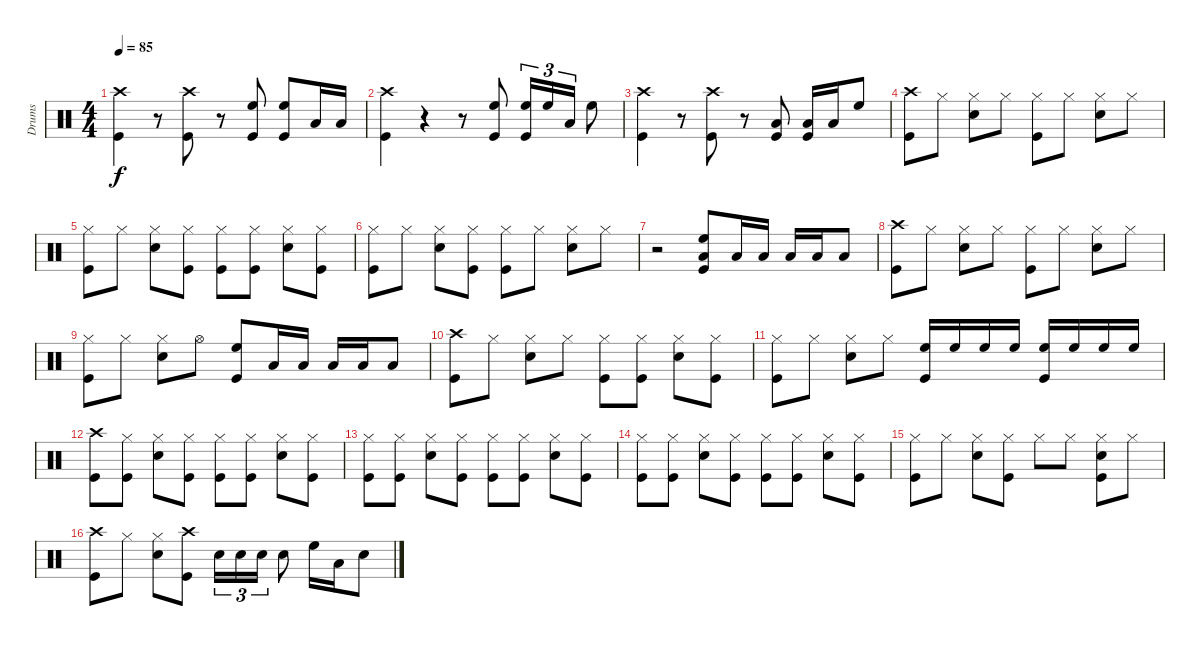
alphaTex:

\track ("Drums" "Drums") {instrument percussion}
\staff {score}
\articulation defaults
\ts (4 4)
\tempo 85
\clef neutral
\ks c
("Crash high (hit)" "Kick (hit)").4{dy f} r.8 ("Crash high (hit)" "Kick (hit)").8 r.8 ("High Floor Tom (hit)" "Kick (hit)").8 ("High Floor Tom (hit)" "Kick (hit)").8 "Low Floor Tom (hit)".16 "Low Floor Tom (hit)".16 |
("Crash high (hit)" "Kick (hit)").4 r.4 r.8 ("High Floor Tom (hit)" "Kick (hit)").8 ("High Floor Tom (hit)" "Kick (hit)").16{tu (3 2)} "High Floor Tom (hit)".16{tu (3 2)} "Low Floor Tom (hit)".16{tu (3 2)} "High Floor Tom (hit)".8 |
("Crash high (hit)" "Kick (hit)").4 r.8 ("Crash high (hit)" "Kick (hit)").8 r.8 ("Low Floor Tom (hit)" "Kick (hit)").8 ("Low Floor Tom (hit)" "Kick (hit)").16 "Low Floor Tom (hit)".16 "High Floor Tom (hit)".8 |
("Crash high (hit)" "Kick (hit)").8 "Hi-Hat (closed)".8 ("Hi-Hat (closed)" "Snare (hit) 2").8 "Hi-Hat (closed)".8 ("Hi-Hat (closed)" "Kick (hit)").8 "Hi-Hat (closed)".8 ("Hi-Hat (closed)" "Snare (hit) 2").8 "Hi-Hat (closed)".8 |
("Hi-Hat (closed)" "Kick (hit)").8 "Hi-Hat (closed)".8 ("Hi-Hat (closed)" "Snare (hit) 2").8 ("Hi-Hat (closed)" "Kick (hit)").8 ("Hi-Hat (closed)" "Kick (hit)").8 ("Hi-Hat (closed)" "Kick (hit)").8 ("Hi-Hat (closed)" "Snare (hit) 2").8 ("Hi-Hat (closed)" "Kick (hit)").8 |
("Hi-Hat (closed)" "Kick (hit)").8 "Hi-Hat (closed)".8 ("Hi-Hat (closed)" "Snare (hit) 2").8 ("Hi-Hat (closed)" "Kick (hit)").8 ("Hi-Hat (closed)" "Kick (hit)").8 "Hi-Hat (closed)".8 ("Hi-Hat (closed)" "Snare (hit) 2").8 "Hi-Hat (closed)".8 |
r.2 ("High Floor Tom (hit)" "Low Floor Tom (hit)" "Kick (hit)").8 "Low Floor Tom (hit)".16 "Low Floor Tom (hit)".16 "Low Floor Tom (hit)".16 "Low Floor Tom (hit)".16 "Low Floor Tom (hit)".8 |
("Crash high (hit)" "Kick (hit)").8 "Hi-Hat (closed)".8 ("Hi-Hat (closed)" "Snare (hit) 2").8 "Hi-Hat (closed)".8 ("Hi-Hat (closed)" "Kick (hit)").8 "Hi-Hat (closed)".8 ("Hi-Hat (closed)" "Snare (hit) 2").8 "Hi-Hat (closed)".8 |
("Hi-Hat (closed)" "Kick (hit)").8 "Hi-Hat (closed)".8 ("Hi-Hat (closed)" "Snare (hit) 2").8 "Hi-Hat (open)".8 ("High Floor Tom (hit)" "Kick (hit)").8 "Low Floor Tom (hit)".16 "Low Floor Tom (hit)".16 "Low Floor Tom (hit)".16 "Low Floor Tom (hit)".16 "Low Floor Tom (hit)".8 |
("Crash high (hit)" "Kick (hit)").8 "Hi-Hat (closed)".8 ("Hi-Hat (closed)" "Snare (hit) 2").8 "Hi-Hat (closed)".8 ("Hi-Hat (closed)" "Kick (hit)").8 ("Hi-Hat (closed)" "Kick (hit)").8 ("Hi-Hat (closed)" "Snare (hit) 2").8 ("Hi-Hat (closed)" "Kick (hit)").8 |
("Hi-Hat (closed)" "Kick (hit)").8 "Hi-Hat (closed)".8 ("Hi-Hat (closed)" "Snare (hit) 2").8 "Hi-Hat (closed)".8 ("High Floor Tom (hit)" "Kick (hit)").16 "High Floor Tom (hit)".16 "High Floor Tom (hit)".16 "High Floor Tom (hit)".16 ("High Floor Tom (hit)" "Kick (hit)").16 "High Floor Tom (hit)".16 "High Floor Tom (hit)".16 "High Floor Tom (hit)".16 |
("Crash high (hit)" "Kick (hit)").8 ("Hi-Hat (closed)" "Kick (hit)").8 ("Hi-Hat (closed)" "Snare (hit) 2").8 ("Hi-Hat (closed)" "Kick (hit)").8 ("Hi-Hat (closed)" "Kick (hit)").8 ("Hi-Hat (closed)" "Kick (hit)").8 ("Hi-Hat (closed)" "Snare (hit) 2").8 ("Hi-Hat (closed)" "Kick (hit)").8 |
("Hi-Hat (closed)" "Kick (hit)").8 ("Hi-Hat (closed)" "Kick (hit)").8 ("Hi-Hat (closed)" "Snare (hit) 2").8 ("Hi-Hat (closed)" "Kick (hit)").8 ("Hi-Hat (closed)" "Kick (hit)").8 ("Hi-Hat (closed)" "Kick (hit)").8 ("Hi-Hat (closed)" "Snare (hit) 2").8 ("Hi-Hat (closed)" "Kick (hit)").8 |
("Hi-Hat (closed)" "Kick (hit)").8 ("Hi-Hat (closed)" "Kick (hit)").8 ("Hi-Hat (closed)" "Snare (hit) 2").8 ("Hi-Hat (closed)" "Kick (hit)").8 ("Hi-Hat (closed)" "Kick (hit)").8 ("Hi-Hat (closed)" "Kick (hit)").8 ("Hi-Hat (closed)" "Snare (hit) 2").8 ("Hi-Hat (closed)" "Kick (hit)").8 |
("Hi-Hat (closed)" "Kick (hit)").8 "Hi-Hat (closed)".8 ("Hi-Hat (closed)" "Snare (hit) 2").8 ("Hi-Hat (closed)" "Kick (hit)").8 "Hi-Hat (closed)".8 "Hi-Hat (closed)".8 ("Hi-Hat (closed)" "Snare (hit) 2" "Kick (hit)").8 "Hi-Hat (closed)".8 |
("Crash high (hit)" "Kick (hit)").8 "Hi-Hat (closed)".8 ("Hi-Hat (closed)" "Snare (hit) 2").8 ("Crash high (hit)" "Kick (hit)").8 "Snare (hit) 2".16{tu (3 2)} "Snare (hit) 2".16{tu (3 2)} "Snare (hit) 2".16{tu (3 2)} "Snare (hit) 2".8 "High Floor Tom (hit)".16 "Low Floor Tom (hit)".16 "Snare (hit) 2".8
